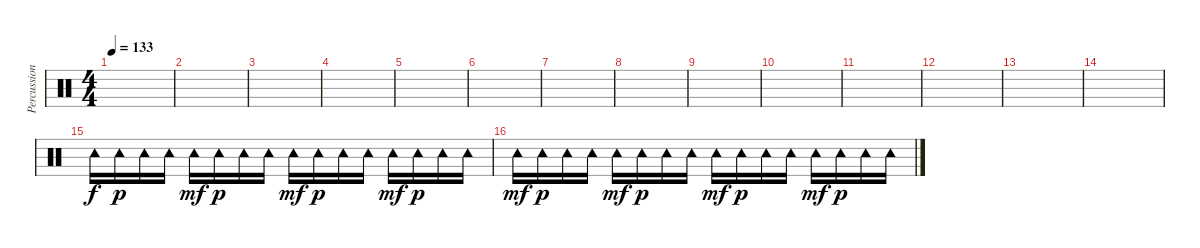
\track ("Percussion" "Percussion") {instrument percussion}
\staff {score}
\articulation defaults
\ts (4 4)
\tempo 133
\clef neutral
\ks c
|
|
|
|
|
|
|
|
|
|
|
|
|
|
"Tambourine (hit)".16 "Tambourine (hit)".16{dy p} "Tambourine (hit)".16 "Tambourine (hit)".16 "Tambourine (hit)".16{dy mf} "Tambourine (hit)".16{dy p} "Tambourine (hit)".16 "Tambourine (hit)".16 "Tambourine (hit)".16{dy mf} "Tambourine (hit)".16{dy p} "Tambourine (hit)".16 "Tambourine (hit)".16 "Tambourine (hit)".16{dy mf} "Tambourine (hit)".16{dy p} "Tambourine (hit)".16 "Tambourine (hit)".16 |
"Tambourine (hit)".16{dy mf} "Tambourine (hit)".16{dy p} "Tambourine (hit)".16 "Tambourine (hit)".16 "Tambourine (hit)".16{dy mf} "Tambourine (hit)".16{dy p} "Tambourine (hit)".16 "Tambourine (hit)".16 "Tambourine (hit)".16{dy mf} "Tambourine (hit)".16{dy p} "Tambourine (hit)".16 "Tambourine (hit)".16 "Tambourine (hit)".16{dy mf} "Tambourine (hit)".16{dy p} "Tambourine (hit)".16 "Tambourine (hit)".16
